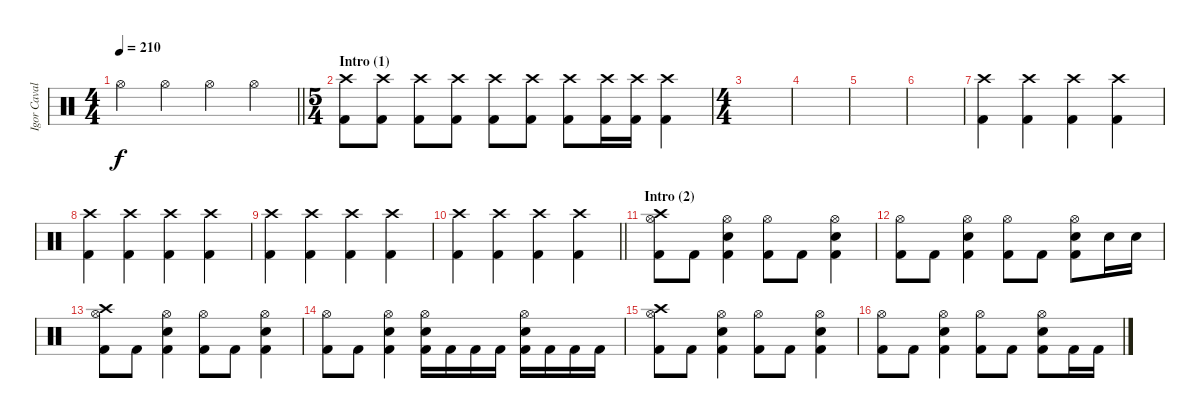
\track ("Igor Cavalera" "Igor Caval") {instrument percussion}
\staff {score}
\articulation defaults
\ts (4 4)
\tempo 210
\clef neutral
\barLineRight lightlight
\ks c "Hi-Hat (open)".4{dy f} "Hi-Hat (open)".4 "Hi-Hat (open)".4 "Hi-Hat (open)".4
|
\ts (5 4)
\section ("" "Intro (1)")
("Crash high (hit)" "Kick (hit) 2").8 ("Crash high (hit)" "Kick (hit) 2").8 ("Crash high (hit)" "Kick (hit) 2").8 ("Crash high (hit)" "Kick (hit) 2").8 ("Crash high (hit)" "Kick (hit) 2").8 ("Crash high (hit)" "Kick (hit) 2").8 ("Crash high (hit)" "Kick (hit) 2").8 ("Crash high (hit)" "Kick (hit) 2").16 ("Crash high (hit)" "Kick (hit) 2").16 ("Crash high (hit)" "Kick (hit) 2").4 |
\ts (4 4)
|
|
|
|
("Crash high (hit)" "Kick (hit) 2").4 ("Crash high (hit)" "Kick (hit) 2").4 ("Crash high (hit)" "Kick (hit) 2").4 ("Crash high (hit)" "Kick (hit) 2").4 |
("Crash high (hit)" "Kick (hit) 2").4 ("Crash high (hit)" "Kick (hit) 2").4 ("Crash high (hit)" "Kick (hit) 2").4 ("Crash high (hit)" "Kick (hit) 2").4 |
("Crash high (hit)" "Kick (hit) 2").4 ("Crash high (hit)" "Kick (hit) 2").4 ("Crash high (hit)" "Kick (hit) 2").4 ("Crash high (hit)" "Kick (hit) 2").4 |
\barLineRight lightlight
("Crash high (hit)" "Kick (hit) 2").4 ("Crash high (hit)" "Kick (hit) 2").4 ("Crash high (hit)" "Kick (hit) 2").4 ("Crash high (hit)" "Kick (hit) 2").4 |
\section ("" "Intro (2)")
("Crash high (hit)" "Hi-Hat (open)" "Kick (hit) 2").8 "Kick (hit) 2".8 ("Hi-Hat (open)" "Electric Snare (hit)" "Kick (hit) 2").4 ("Hi-Hat (open)" "Kick (hit) 2").8 "Kick (hit) 2".8 ("Hi-Hat (open)" "Electric Snare (hit)" "Kick (hit) 2").4 |
("Hi-Hat (open)" "Kick (hit) 2").8 "Kick (hit) 2".8 ("Hi-Hat (open)" "Electric Snare (hit)" "Kick (hit) 2").4 ("Hi-Hat (open)" "Kick (hit) 2").8 "Kick (hit) 2".8 ("Hi-Hat (open)" "Electric Snare (hit)" "Kick (hit) 2").8 "Electric Snare (hit)".16 "Electric Snare (hit)".16 |
("Crash high (hit)" "Hi-Hat (open)" "Kick (hit) 2").8 "Kick (hit) 2".8 ("Hi-Hat (open)" "Electric Snare (hit)" "Kick (hit) 2").4 ("Hi-Hat (open)" "Kick (hit) 2").8 "Kick (hit) 2".8 ("Hi-Hat (open)" "Electric Snare (hit)" "Kick (hit) 2").4 |
("Hi-Hat (open)" "Kick (hit) 2").8 "Kick (hit) 2".8 ("Hi-Hat (open)" "Electric Snare (hit)" "Kick (hit) 2").4 ("Hi-Hat (open)" "Electric Snare (hit)" "Kick (hit) 2").16 "Kick (hit) 2".16 "Kick (hit) 2".16 "Kick (hit) 2".16 ("Hi-Hat (open)" "Electric Snare (hit)" "Kick (hit) 2").16 "Kick (hit) 2".16 "Kick (hit) 2".16 "Kick (hit) 2".16 |
("Crash high (hit)" "Hi-Hat (open)" "Kick (hit) 2").8 "Kick (hit) 2".8 ("Hi-Hat (open)" "Electric Snare (hit)" "Kick (hit) 2").4 ("Hi-Hat (open)" "Kick (hit) 2").8 "Kick (hit) 2".8 ("Hi-Hat (open)" "Electric Snare (hit)" "Kick (hit) 2").4 |
("Hi-Hat (open)" "Kick (hit) 2").8 "Kick (hit) 2".8 ("Hi-Hat (open)" "Electric Snare (hit)" "Kick (hit) 2").4 ("Hi-Hat (open)" "Kick (hit) 2").8 "Kick (hit) 2".8 ("Hi-Hat (open)" "Electric Snare (hit)" "Kick (hit) 2").8 "Kick (hit) 2".16 "Kick (hit) 2".16
